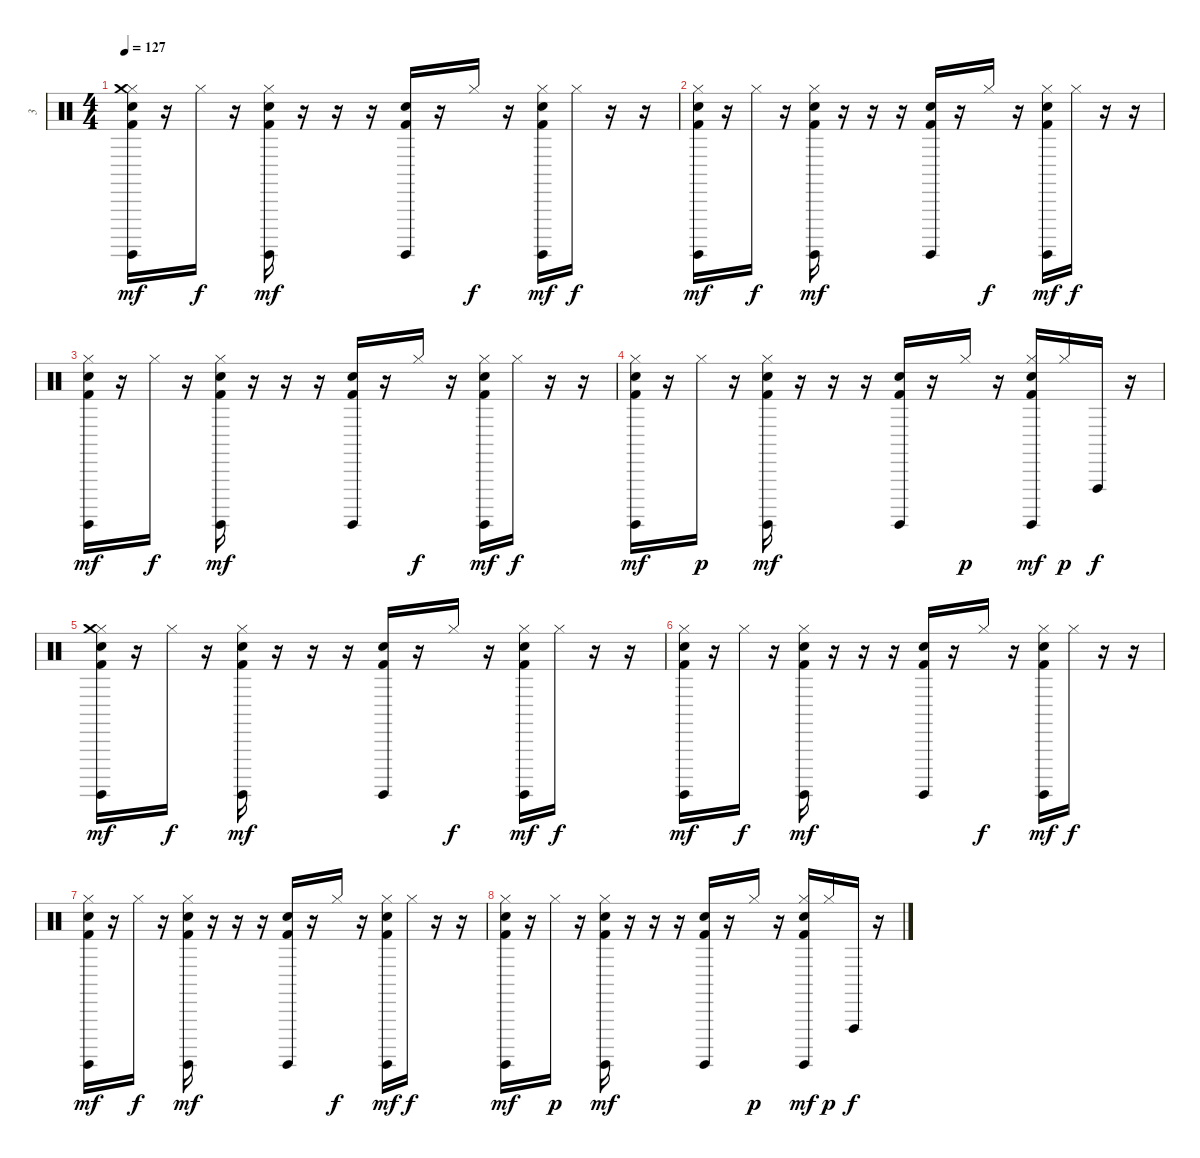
\track ("3" "3") {instrument percussion}
\staff {score}
\articulation defaults
\ts (4 4)
\tempo 127
\clef neutral
\ks c
("Hi-Hat (closed)" "Crash medium (hit)" "Surdo (hit)" "Kick (hit) 2" "Hand Clap (hit)").16{dy mf} r.16 "Hi-Hat (closed)".16{dy f} r.16 ("Hi-Hat (closed)" "Surdo (hit)" "Kick (hit) 2" "Hand Clap (hit)").16{dy mf} r.16 r.16 r.16 ("Surdo (hit)" "Kick (hit) 2" "Hand Clap (hit)").16 r.16 "Hi-Hat (closed)".16{dy f} r.16 ("Hi-Hat (closed)" "Surdo (hit)" "Kick (hit) 2" "Hand Clap (hit)").16{dy mf} "Hi-Hat (closed)".16{dy f} r.16 r.16 |
("Hi-Hat (closed)" "Surdo (hit)" "Kick (hit) 2" "Hand Clap (hit)").16{dy mf} r.16 "Hi-Hat (closed)".16{dy f} r.16 ("Hi-Hat (closed)" "Surdo (hit)" "Kick (hit) 2" "Hand Clap (hit)").16{dy mf} r.16 r.16 r.16 ("Surdo (hit)" "Kick (hit) 2" "Hand Clap (hit)").16 r.16 "Hi-Hat (closed)".16{dy f} r.16 ("Hi-Hat (closed)" "Surdo (hit)" "Kick (hit) 2" "Hand Clap (hit)").16{dy mf} "Hi-Hat (closed)".16{dy f} r.16 r.16 |
("Hi-Hat (closed)" "Surdo (hit)" "Kick (hit) 2" "Hand Clap (hit)").16{dy mf} r.16 "Hi-Hat (closed)".16{dy f} r.16 ("Hi-Hat (closed)" "Surdo (hit)" "Kick (hit) 2" "Hand Clap (hit)").16{dy mf} r.16 r.16 r.16 ("Surdo (hit)" "Kick (hit) 2" "Hand Clap (hit)").16 r.16 "Hi-Hat (closed)".16{dy f} r.16 ("Hi-Hat (closed)" "Surdo (hit)" "Kick (hit) 2" "Hand Clap (hit)").16{dy mf} "Hi-Hat (closed)".16{dy f} r.16 r.16 |
("Hi-Hat (closed)" "Surdo (hit)" "Kick (hit) 2" "Hand Clap (hit)").16{dy mf} r.16 "Hi-Hat (closed)".16{dy p} r.16 ("Hi-Hat (closed)" "Surdo (hit)" "Kick (hit) 2" "Hand Clap (hit)").16{dy mf} r.16 r.16 r.16 ("Surdo (hit)" "Kick (hit) 2" "Hand Clap (hit)").16 r.16 "Hi-Hat (closed)".16{dy p} r.16 ("Hi-Hat (closed)" "Surdo (hit)" "Kick (hit) 2" "Hand Clap (hit)").16{dy mf} "Hi-Hat (closed)".16{dy p} "Vibraslap (hit)".16{dy f} r.16 |
("Hi-Hat (closed)" "Crash medium (hit)" "Surdo (hit)" "Kick (hit) 2" "Hand Clap (hit)").16{dy mf} r.16 "Hi-Hat (closed)".16{dy f} r.16 ("Hi-Hat (closed)" "Surdo (hit)" "Kick (hit) 2" "Hand Clap (hit)").16{dy mf} r.16 r.16 r.16 ("Surdo (hit)" "Kick (hit) 2" "Hand Clap (hit)").16 r.16 "Hi-Hat (closed)".16{dy f} r.16 ("Hi-Hat (closed)" "Surdo (hit)" "Kick (hit) 2" "Hand Clap (hit)").16{dy mf} "Hi-Hat (closed)".16{dy f} r.16 r.16 |
("Hi-Hat (closed)" "Surdo (hit)" "Kick (hit) 2" "Hand Clap (hit)").16{dy mf} r.16 "Hi-Hat (closed)".16{dy f} r.16 ("Hi-Hat (closed)" "Surdo (hit)" "Kick (hit) 2" "Hand Clap (hit)").16{dy mf} r.16 r.16 r.16 ("Surdo (hit)" "Kick (hit) 2" "Hand Clap (hit)").16 r.16 "Hi-Hat (closed)".16{dy f} r.16 ("Hi-Hat (closed)" "Surdo (hit)" "Kick (hit) 2" "Hand Clap (hit)").16{dy mf} "Hi-Hat (closed)".16{dy f} r.16 r.16 |
("Hi-Hat (closed)" "Surdo (hit)" "Kick (hit) 2" "Hand Clap (hit)").16{dy mf} r.16 "Hi-Hat (closed)".16{dy f} r.16 ("Hi-Hat (closed)" "Surdo (hit)" "Kick (hit) 2" "Hand Clap (hit)").16{dy mf} r.16 r.16 r.16 ("Surdo (hit)" "Kick (hit) 2" "Hand Clap (hit)").16 r.16 "Hi-Hat (closed)".16{dy f} r.16 ("Hi-Hat (closed)" "Surdo (hit)" "Kick (hit) 2" "Hand Clap (hit)").16{dy mf} "Hi-Hat (closed)".16{dy f} r.16 r.16 |
("Hi-Hat (closed)" "Surdo (hit)" "Kick (hit) 2" "Hand Clap (hit)").16{dy mf} r.16 "Hi-Hat (closed)".16{dy p} r.16 ("Hi-Hat (closed)" "Surdo (hit)" "Kick (hit) 2" "Hand Clap (hit)").16{dy mf} r.16 r.16 r.16 ("Surdo (hit)" "Kick (hit) 2" "Hand Clap (hit)").16 r.16 "Hi-Hat (closed)".16{dy p} r.16 ("Hi-Hat (closed)" "Surdo (hit)" "Kick (hit) 2" "Hand Clap (hit)").16{dy mf} "Hi-Hat (closed)".16{dy p} "Vibraslap (hit)".16{dy f} r.16
